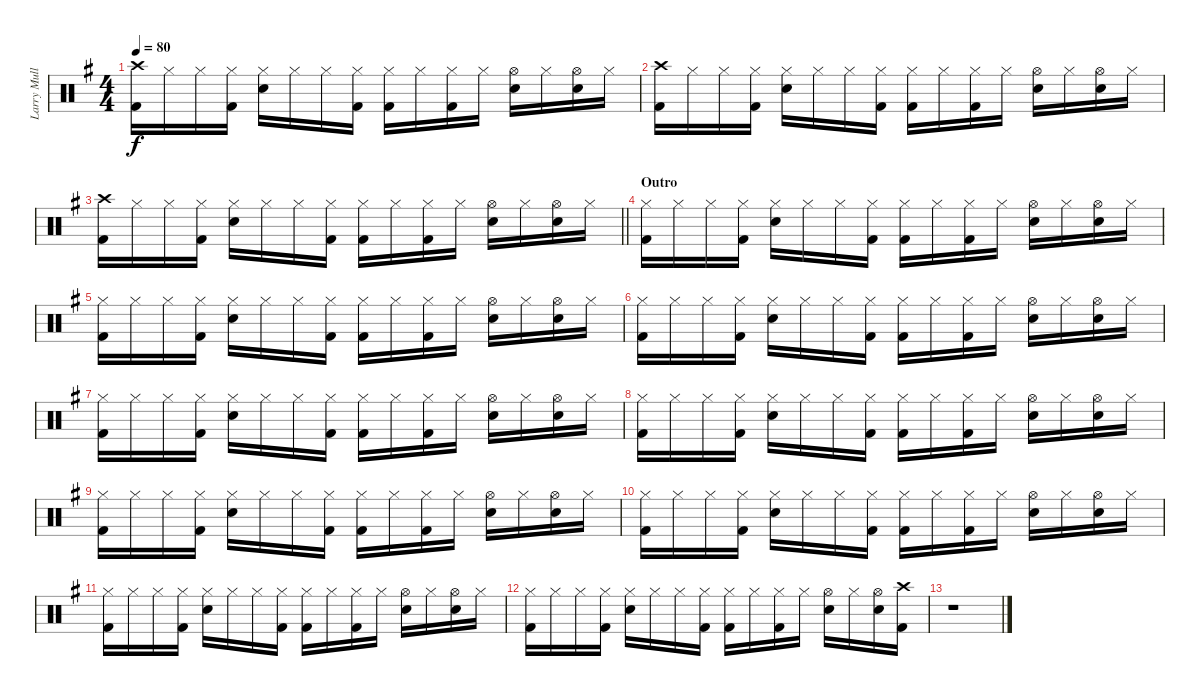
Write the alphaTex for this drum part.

\track ("Larry Mullen Jr" "Larry Mull") {instrument percussion}
\staff {score}
\articulation defaults
\ts (4 4)
\tempo 80
\clef neutral
\ks g
("Crash high (hit)" "Kick (hit) 2").16{dy f} "Hi-Hat (closed)".16 "Hi-Hat (closed)".16 ("Hi-Hat (closed)" "Kick (hit) 2").16 ("Hi-Hat (closed)" "Snare (hit) 2").16 "Hi-Hat (closed)".16 "Hi-Hat (closed)".16 ("Hi-Hat (closed)" "Kick (hit) 2").16 ("Hi-Hat (closed)" "Kick (hit) 2").16 "Hi-Hat (closed)".16 ("Hi-Hat (closed)" "Kick (hit) 2").16 "Hi-Hat (closed)".16 ("Hi-Hat (open)" "Snare (hit) 2").16 "Hi-Hat (closed)".16 ("Hi-Hat (open)" "Snare (hit) 2").16 "Hi-Hat (closed)".16 |
("Crash high (hit)" "Kick (hit) 2").16 "Hi-Hat (closed)".16 "Hi-Hat (closed)".16 ("Hi-Hat (closed)" "Kick (hit) 2").16 ("Hi-Hat (closed)" "Snare (hit) 2").16 "Hi-Hat (closed)".16 "Hi-Hat (closed)".16 ("Hi-Hat (closed)" "Kick (hit) 2").16 ("Hi-Hat (closed)" "Kick (hit) 2").16 "Hi-Hat (closed)".16 ("Hi-Hat (closed)" "Kick (hit) 2").16 "Hi-Hat (closed)".16 ("Hi-Hat (open)" "Snare (hit) 2").16 "Hi-Hat (closed)".16 ("Hi-Hat (open)" "Snare (hit) 2").16 "Hi-Hat (closed)".16 |
\barLineRight lightlight
("Crash high (hit)" "Kick (hit) 2").16 "Hi-Hat (closed)".16 "Hi-Hat (closed)".16 ("Hi-Hat (closed)" "Kick (hit) 2").16 ("Hi-Hat (closed)" "Snare (hit) 2").16 "Hi-Hat (closed)".16 "Hi-Hat (closed)".16 ("Hi-Hat (closed)" "Kick (hit) 2").16 ("Hi-Hat (closed)" "Kick (hit) 2").16 "Hi-Hat (closed)".16 ("Hi-Hat (closed)" "Kick (hit) 2").16 "Hi-Hat (closed)".16 ("Hi-Hat (open)" "Snare (hit) 2").16 "Hi-Hat (closed)".16 ("Hi-Hat (open)" "Snare (hit) 2").16 "Hi-Hat (closed)".16 |
\section ("" "Outro")
("Hi-Hat (closed)" "Kick (hit) 2").16 "Hi-Hat (closed)".16 "Hi-Hat (closed)".16 ("Hi-Hat (closed)" "Kick (hit) 2").16 ("Hi-Hat (closed)" "Snare (hit) 2").16 "Hi-Hat (closed)".16 "Hi-Hat (closed)".16 ("Hi-Hat (closed)" "Kick (hit) 2").16 ("Hi-Hat (closed)" "Kick (hit) 2").16 "Hi-Hat (closed)".16 ("Hi-Hat (closed)" "Kick (hit) 2").16 "Hi-Hat (closed)".16 ("Hi-Hat (open)" "Snare (hit) 2").16 "Hi-Hat (closed)".16 ("Hi-Hat (open)" "Snare (hit) 2").16 "Hi-Hat (closed)".16 |
("Hi-Hat (closed)" "Kick (hit) 2").16 "Hi-Hat (closed)".16 "Hi-Hat (closed)".16 ("Hi-Hat (closed)" "Kick (hit) 2").16 ("Hi-Hat (closed)" "Snare (hit) 2").16 "Hi-Hat (closed)".16 "Hi-Hat (closed)".16 ("Hi-Hat (closed)" "Kick (hit) 2").16 ("Hi-Hat (closed)" "Kick (hit) 2").16 "Hi-Hat (closed)".16 ("Hi-Hat (closed)" "Kick (hit) 2").16 "Hi-Hat (closed)".16 ("Hi-Hat (open)" "Snare (hit) 2").16 "Hi-Hat (closed)".16 ("Hi-Hat (open)" "Snare (hit) 2").16 "Hi-Hat (closed)".16 |
("Hi-Hat (closed)" "Kick (hit) 2").16 "Hi-Hat (closed)".16 "Hi-Hat (closed)".16 ("Hi-Hat (closed)" "Kick (hit) 2").16 ("Hi-Hat (closed)" "Snare (hit) 2").16 "Hi-Hat (closed)".16 "Hi-Hat (closed)".16 ("Hi-Hat (closed)" "Kick (hit) 2").16 ("Hi-Hat (closed)" "Kick (hit) 2").16 "Hi-Hat (closed)".16 ("Hi-Hat (closed)" "Kick (hit) 2").16 "Hi-Hat (closed)".16 ("Hi-Hat (open)" "Snare (hit) 2").16 "Hi-Hat (closed)".16 ("Hi-Hat (open)" "Snare (hit) 2").16 "Hi-Hat (closed)".16 |
("Hi-Hat (closed)" "Kick (hit) 2").16 "Hi-Hat (closed)".16 "Hi-Hat (closed)".16 ("Hi-Hat (closed)" "Kick (hit) 2").16 ("Hi-Hat (closed)" "Snare (hit) 2").16 "Hi-Hat (closed)".16 "Hi-Hat (closed)".16 ("Hi-Hat (closed)" "Kick (hit) 2").16 ("Hi-Hat (closed)" "Kick (hit) 2").16 "Hi-Hat (closed)".16 ("Hi-Hat (closed)" "Kick (hit) 2").16 "Hi-Hat (closed)".16 ("Hi-Hat (open)" "Snare (hit) 2").16 "Hi-Hat (closed)".16 ("Hi-Hat (open)" "Snare (hit) 2").16 "Hi-Hat (closed)".16 |
("Hi-Hat (closed)" "Kick (hit) 2").16 "Hi-Hat (closed)".16 "Hi-Hat (closed)".16 ("Hi-Hat (closed)" "Kick (hit) 2").16 ("Hi-Hat (closed)" "Snare (hit) 2").16 "Hi-Hat (closed)".16 "Hi-Hat (closed)".16 ("Hi-Hat (closed)" "Kick (hit) 2").16 ("Hi-Hat (closed)" "Kick (hit) 2").16 "Hi-Hat (closed)".16 ("Hi-Hat (closed)" "Kick (hit) 2").16 "Hi-Hat (closed)".16 ("Hi-Hat (open)" "Snare (hit) 2").16 "Hi-Hat (closed)".16 ("Hi-Hat (open)" "Snare (hit) 2").16 "Hi-Hat (closed)".16 |
("Hi-Hat (closed)" "Kick (hit) 2").16 "Hi-Hat (closed)".16 "Hi-Hat (closed)".16 ("Hi-Hat (closed)" "Kick (hit) 2").16 ("Hi-Hat (closed)" "Snare (hit) 2").16 "Hi-Hat (closed)".16 "Hi-Hat (closed)".16 ("Hi-Hat (closed)" "Kick (hit) 2").16 ("Hi-Hat (closed)" "Kick (hit) 2").16 "Hi-Hat (closed)".16 ("Hi-Hat (closed)" "Kick (hit) 2").16 "Hi-Hat (closed)".16 ("Hi-Hat (open)" "Snare (hit) 2").16 "Hi-Hat (closed)".16 ("Hi-Hat (open)" "Snare (hit) 2").16 "Hi-Hat (closed)".16 |
("Hi-Hat (closed)" "Kick (hit) 2").16 "Hi-Hat (closed)".16 "Hi-Hat (closed)".16 ("Hi-Hat (closed)" "Kick (hit) 2").16 ("Hi-Hat (closed)" "Snare (hit) 2").16 "Hi-Hat (closed)".16 "Hi-Hat (closed)".16 ("Hi-Hat (closed)" "Kick (hit) 2").16 ("Hi-Hat (closed)" "Kick (hit) 2").16 "Hi-Hat (closed)".16 ("Hi-Hat (closed)" "Kick (hit) 2").16 "Hi-Hat (closed)".16 ("Hi-Hat (open)" "Snare (hit) 2").16 "Hi-Hat (closed)".16 ("Hi-Hat (open)" "Snare (hit) 2").16 "Hi-Hat (closed)".16 |
("Hi-Hat (closed)" "Kick (hit) 2").16 "Hi-Hat (closed)".16 "Hi-Hat (closed)".16 ("Hi-Hat (closed)" "Kick (hit) 2").16 ("Hi-Hat (closed)" "Snare (hit) 2").16 "Hi-Hat (closed)".16 "Hi-Hat (closed)".16 ("Hi-Hat (closed)" "Kick (hit) 2").16 ("Hi-Hat (closed)" "Kick (hit) 2").16 "Hi-Hat (closed)".16 ("Hi-Hat (closed)" "Kick (hit) 2").16 "Hi-Hat (closed)".16 ("Hi-Hat (open)" "Snare (hit) 2").16 "Hi-Hat (closed)".16 ("Hi-Hat (open)" "Snare (hit) 2").16 "Hi-Hat (closed)".16 |
("Hi-Hat (closed)" "Kick (hit) 2").16 "Hi-Hat (closed)".16 "Hi-Hat (closed)".16 ("Hi-Hat (closed)" "Kick (hit) 2").16 ("Hi-Hat (closed)" "Snare (hit) 2").16 "Hi-Hat (closed)".16 "Hi-Hat (closed)".16 ("Hi-Hat (closed)" "Kick (hit) 2").16 ("Hi-Hat (closed)" "Kick (hit) 2").16 "Hi-Hat (closed)".16 ("Hi-Hat (closed)" "Kick (hit) 2").16 "Hi-Hat (closed)".16 ("Hi-Hat (open)" "Snare (hit) 2").16 "Hi-Hat (closed)".16 ("Hi-Hat (open)" "Snare (hit) 2").16 ("Crash high (hit)" "Kick (hit) 2").16 |
r.1
